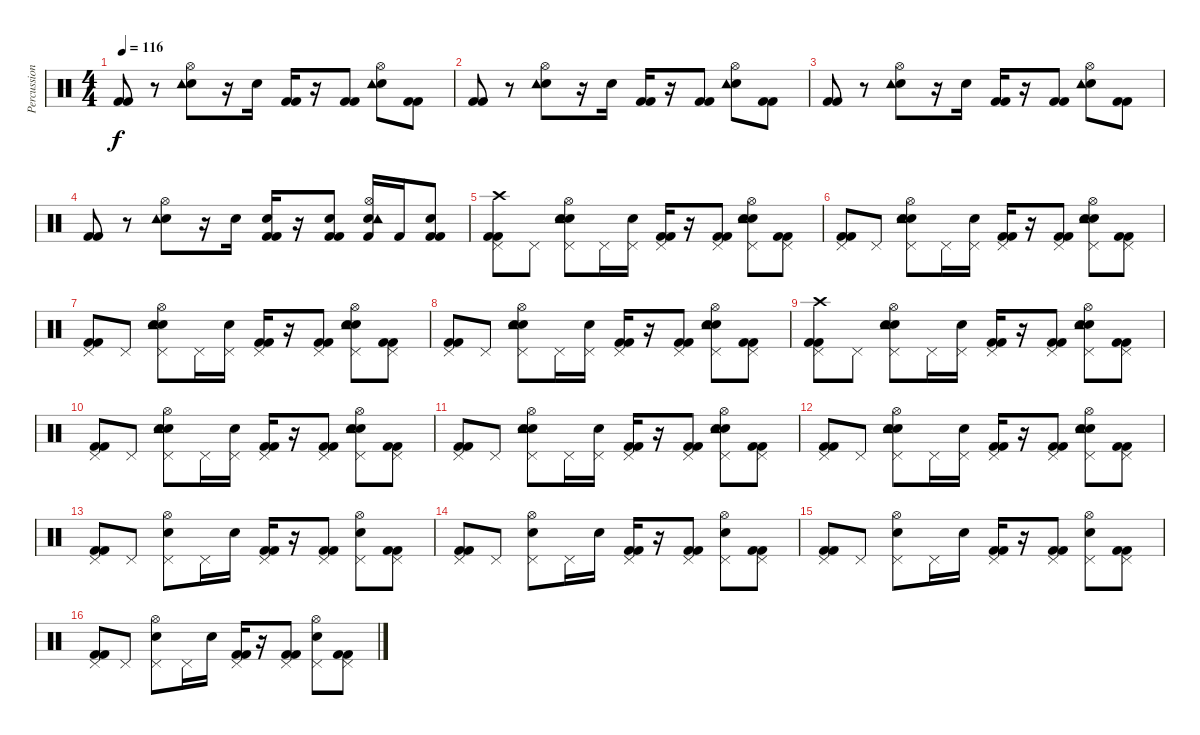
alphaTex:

\track ("Percussion" "Percussion") {instrument percussion}
\staff {score}
\articulation defaults
\ts (4 4)
\tempo 116
\clef neutral
\ks c
("Kick (hit) 2" "Kick (hit) 2").8{dy f} r.8 ("Hi-Hat (open)" "Snare (hit) 2" "Tambourine (hit)").8 r.16 "Snare (hit) 2".16 ("Kick (hit) 2" "Kick (hit) 2").16 r.16 ("Kick (hit) 2" "Kick (hit) 2").8 ("Hi-Hat (open)" "Snare (hit) 2" "Tambourine (hit)").8 ("Kick (hit) 2" "Kick (hit) 2").8 |
("Kick (hit) 2" "Kick (hit) 2").8 r.8 ("Hi-Hat (open)" "Snare (hit) 2" "Tambourine (hit)").8 r.16 "Snare (hit) 2".16 ("Kick (hit) 2" "Kick (hit) 2").16 r.16 ("Kick (hit) 2" "Kick (hit) 2").8 ("Hi-Hat (open)" "Snare (hit) 2" "Tambourine (hit)").8 ("Kick (hit) 2" "Kick (hit) 2").8 |
("Kick (hit) 2" "Kick (hit) 2").8 r.8 ("Hi-Hat (open)" "Snare (hit) 2" "Tambourine (hit)").8 r.16 "Snare (hit) 2".16 ("Kick (hit) 2" "Kick (hit) 2").16 r.16 ("Kick (hit) 2" "Kick (hit) 2").8 ("Hi-Hat (open)" "Snare (hit) 2" "Tambourine (hit)").8 ("Kick (hit) 2" "Kick (hit) 2").8 |
("Kick (hit) 2" "Kick (hit) 2").8 r.8 ("Hi-Hat (open)" "Snare (hit) 2" "Tambourine (hit)").8 r.16 "Snare (hit) 2".16 ("Snare (hit) 2" "Kick (hit) 2" "Kick (hit) 2").16 r.16 ("Snare (hit) 2" "Kick (hit) 2" "Kick (hit) 2").8 ("Kick (hit) 2" "Hi-Hat (open)" "Snare (hit) 2" "Tambourine (hit)").16 "Kick (hit) 2".16 ("Snare (hit) 2" "Kick (hit) 2" "Kick (hit) 2").8 |
("Pedal Hi-Hat (hit)" "Crash high (hit)" "Kick (hit) 2" "Kick (hit) 2").8 "Pedal Hi-Hat (hit)".8 ("Pedal Hi-Hat (hit)" "Hi-Hat (open)" "Snare (hit) 2" "Tambourine (hit)" "Hand Clap (hit)").8 "Pedal Hi-Hat (hit)".16 ("Pedal Hi-Hat (hit)" "Snare (hit) 2").16 ("Pedal Hi-Hat (hit)" "Kick (hit) 2" "Kick (hit) 2").16 r.16 ("Pedal Hi-Hat (hit)" "Kick (hit) 2" "Kick (hit) 2").8 ("Pedal Hi-Hat (hit)" "Hi-Hat (open)" "Snare (hit) 2" "Tambourine (hit)" "Hand Clap (hit)").8 ("Pedal Hi-Hat (hit)" "Kick (hit) 2" "Kick (hit) 2").8 |
("Pedal Hi-Hat (hit)" "Kick (hit) 2" "Kick (hit) 2").8 "Pedal Hi-Hat (hit)".8 ("Pedal Hi-Hat (hit)" "Hi-Hat (open)" "Snare (hit) 2" "Tambourine (hit)" "Hand Clap (hit)").8 "Pedal Hi-Hat (hit)".16 ("Pedal Hi-Hat (hit)" "Snare (hit) 2").16 ("Pedal Hi-Hat (hit)" "Kick (hit) 2" "Kick (hit) 2").16 r.16 ("Pedal Hi-Hat (hit)" "Kick (hit) 2" "Kick (hit) 2").8 ("Pedal Hi-Hat (hit)" "Hi-Hat (open)" "Snare (hit) 2" "Tambourine (hit)" "Hand Clap (hit)").8 ("Pedal Hi-Hat (hit)" "Kick (hit) 2" "Kick (hit) 2").8 |
("Pedal Hi-Hat (hit)" "Kick (hit) 2" "Kick (hit) 2").8 "Pedal Hi-Hat (hit)".8 ("Pedal Hi-Hat (hit)" "Hi-Hat (open)" "Snare (hit) 2" "Tambourine (hit)" "Hand Clap (hit)").8 "Pedal Hi-Hat (hit)".16 ("Pedal Hi-Hat (hit)" "Snare (hit) 2").16 ("Pedal Hi-Hat (hit)" "Kick (hit) 2" "Kick (hit) 2").16 r.16 ("Pedal Hi-Hat (hit)" "Kick (hit) 2" "Kick (hit) 2").8 ("Pedal Hi-Hat (hit)" "Hi-Hat (open)" "Snare (hit) 2" "Tambourine (hit)" "Hand Clap (hit)").8 ("Pedal Hi-Hat (hit)" "Kick (hit) 2" "Kick (hit) 2").8 |
("Pedal Hi-Hat (hit)" "Kick (hit) 2" "Kick (hit) 2").8 "Pedal Hi-Hat (hit)".8 ("Pedal Hi-Hat (hit)" "Hi-Hat (open)" "Snare (hit) 2" "Tambourine (hit)" "Hand Clap (hit)").8 "Pedal Hi-Hat (hit)".16 ("Pedal Hi-Hat (hit)" "Snare (hit) 2").16 ("Pedal Hi-Hat (hit)" "Kick (hit) 2" "Kick (hit) 2").16 r.16 ("Pedal Hi-Hat (hit)" "Kick (hit) 2" "Kick (hit) 2").8 ("Pedal Hi-Hat (hit)" "Hi-Hat (open)" "Snare (hit) 2" "Tambourine (hit)" "Hand Clap (hit)").8 ("Pedal Hi-Hat (hit)" "Kick (hit) 2" "Kick (hit) 2").8 |
("Pedal Hi-Hat (hit)" "Crash high (hit)" "Kick (hit) 2" "Kick (hit) 2").8 "Pedal Hi-Hat (hit)".8 ("Pedal Hi-Hat (hit)" "Hi-Hat (open)" "Snare (hit) 2" "Tambourine (hit)" "Hand Clap (hit)").8 "Pedal Hi-Hat (hit)".16 ("Pedal Hi-Hat (hit)" "Snare (hit) 2").16 ("Pedal Hi-Hat (hit)" "Kick (hit) 2" "Kick (hit) 2").16 r.16 ("Pedal Hi-Hat (hit)" "Kick (hit) 2" "Kick (hit) 2").8 ("Pedal Hi-Hat (hit)" "Hi-Hat (open)" "Snare (hit) 2" "Tambourine (hit)" "Hand Clap (hit)").8 ("Pedal Hi-Hat (hit)" "Kick (hit) 2" "Kick (hit) 2").8 |
("Pedal Hi-Hat (hit)" "Kick (hit) 2" "Kick (hit) 2").8 "Pedal Hi-Hat (hit)".8 ("Pedal Hi-Hat (hit)" "Hi-Hat (open)" "Snare (hit) 2" "Tambourine (hit)" "Hand Clap (hit)").8 "Pedal Hi-Hat (hit)".16 ("Pedal Hi-Hat (hit)" "Snare (hit) 2").16 ("Pedal Hi-Hat (hit)" "Kick (hit) 2" "Kick (hit) 2").16 r.16 ("Pedal Hi-Hat (hit)" "Kick (hit) 2" "Kick (hit) 2").8 ("Pedal Hi-Hat (hit)" "Hi-Hat (open)" "Snare (hit) 2" "Tambourine (hit)" "Hand Clap (hit)").8 ("Pedal Hi-Hat (hit)" "Kick (hit) 2" "Kick (hit) 2").8 |
("Pedal Hi-Hat (hit)" "Kick (hit) 2" "Kick (hit) 2").8 "Pedal Hi-Hat (hit)".8 ("Pedal Hi-Hat (hit)" "Hi-Hat (open)" "Snare (hit) 2" "Tambourine (hit)" "Hand Clap (hit)").8 "Pedal Hi-Hat (hit)".16 ("Pedal Hi-Hat (hit)" "Snare (hit) 2").16 ("Pedal Hi-Hat (hit)" "Kick (hit) 2" "Kick (hit) 2").16 r.16 ("Pedal Hi-Hat (hit)" "Kick (hit) 2" "Kick (hit) 2").8 ("Pedal Hi-Hat (hit)" "Hi-Hat (open)" "Snare (hit) 2" "Tambourine (hit)" "Hand Clap (hit)").8 ("Pedal Hi-Hat (hit)" "Kick (hit) 2" "Kick (hit) 2").8 |
("Pedal Hi-Hat (hit)" "Kick (hit) 2" "Kick (hit) 2").8 "Pedal Hi-Hat (hit)".8 ("Pedal Hi-Hat (hit)" "Hi-Hat (open)" "Snare (hit) 2" "Tambourine (hit)" "Hand Clap (hit)").8 "Pedal Hi-Hat (hit)".16 ("Pedal Hi-Hat (hit)" "Snare (hit) 2").16 ("Pedal Hi-Hat (hit)" "Kick (hit) 2" "Kick (hit) 2").16 r.16 ("Pedal Hi-Hat (hit)" "Kick (hit) 2" "Kick (hit) 2").8 ("Pedal Hi-Hat (hit)" "Hi-Hat (open)" "Snare (hit) 2" "Tambourine (hit)" "Hand Clap (hit)").8 ("Pedal Hi-Hat (hit)" "Kick (hit) 2" "Kick (hit) 2").8 |
("Pedal Hi-Hat (hit)" "Kick (hit) 2" "Kick (hit) 2").8 "Pedal Hi-Hat (hit)".8 ("Pedal Hi-Hat (hit)" "Hi-Hat (open)" "Snare (hit) 2").8 "Pedal Hi-Hat (hit)".16 "Snare (hit) 2".16 ("Pedal Hi-Hat (hit)" "Kick (hit) 2" "Kick (hit) 2").16 r.16 ("Pedal Hi-Hat (hit)" "Kick (hit) 2" "Kick (hit) 2").8 ("Pedal Hi-Hat (hit)" "Hi-Hat (open)" "Snare (hit) 2").8 ("Pedal Hi-Hat (hit)" "Kick (hit) 2" "Kick (hit) 2").8 |
("Pedal Hi-Hat (hit)" "Kick (hit) 2" "Kick (hit) 2").8 "Pedal Hi-Hat (hit)".8 ("Pedal Hi-Hat (hit)" "Hi-Hat (open)" "Snare (hit) 2").8 "Pedal Hi-Hat (hit)".16 "Snare (hit) 2".16 ("Pedal Hi-Hat (hit)" "Kick (hit) 2" "Kick (hit) 2").16 r.16 ("Pedal Hi-Hat (hit)" "Kick (hit) 2" "Kick (hit) 2").8 ("Pedal Hi-Hat (hit)" "Hi-Hat (open)" "Snare (hit) 2").8 ("Pedal Hi-Hat (hit)" "Kick (hit) 2" "Kick (hit) 2").8 |
("Pedal Hi-Hat (hit)" "Kick (hit) 2" "Kick (hit) 2").8 "Pedal Hi-Hat (hit)".8 ("Pedal Hi-Hat (hit)" "Hi-Hat (open)" "Snare (hit) 2").8 "Pedal Hi-Hat (hit)".16 "Snare (hit) 2".16 ("Pedal Hi-Hat (hit)" "Kick (hit) 2" "Kick (hit) 2").16 r.16 ("Pedal Hi-Hat (hit)" "Kick (hit) 2" "Kick (hit) 2").8 ("Pedal Hi-Hat (hit)" "Hi-Hat (open)" "Snare (hit) 2").8 ("Pedal Hi-Hat (hit)" "Kick (hit) 2" "Kick (hit) 2").8 |
("Pedal Hi-Hat (hit)" "Kick (hit) 2" "Kick (hit) 2").8 "Pedal Hi-Hat (hit)".8 ("Pedal Hi-Hat (hit)" "Hi-Hat (open)" "Snare (hit) 2").8 "Pedal Hi-Hat (hit)".16 "Snare (hit) 2".16 ("Pedal Hi-Hat (hit)" "Kick (hit) 2" "Kick (hit) 2").16 r.16 ("Pedal Hi-Hat (hit)" "Kick (hit) 2" "Kick (hit) 2").8 ("Pedal Hi-Hat (hit)" "Hi-Hat (open)" "Snare (hit) 2").8 ("Pedal Hi-Hat (hit)" "Kick (hit) 2" "Kick (hit) 2").8
